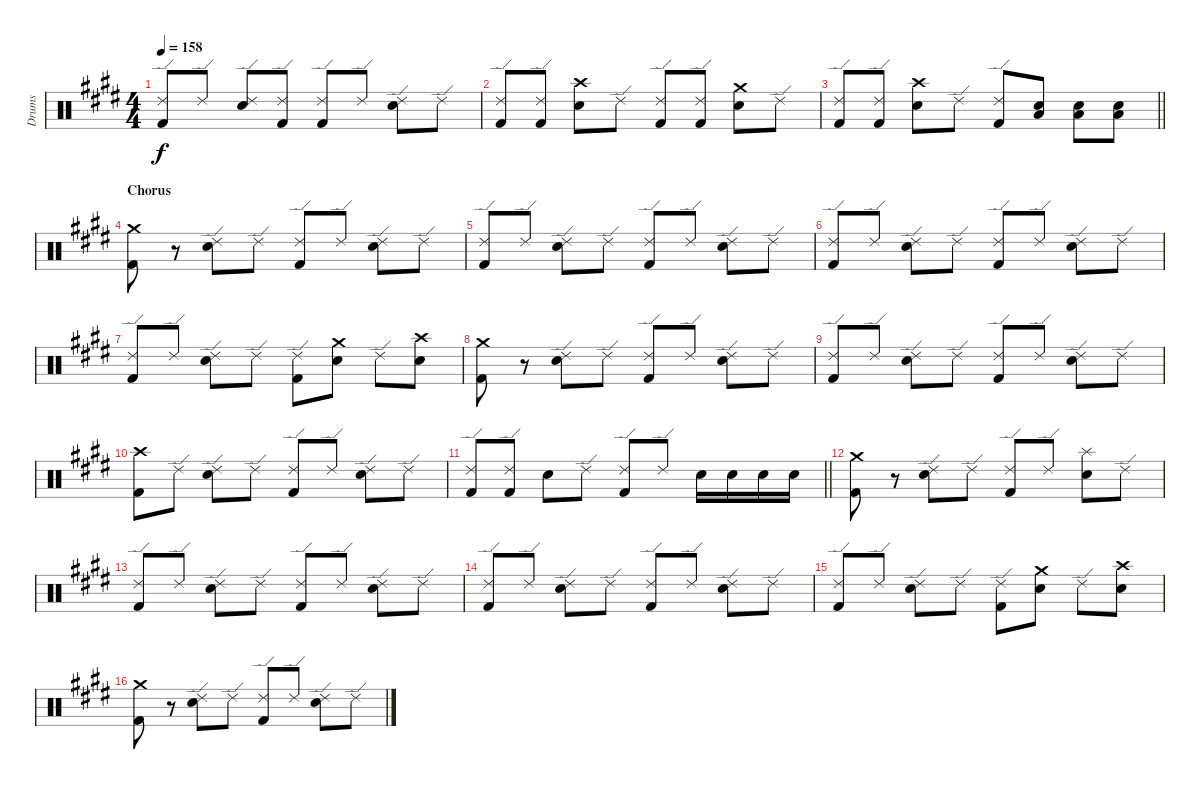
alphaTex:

\track ("Drums" "Drums") {instrument percussion}
\staff {score}
\articulation defaults
\ts (4 4)
\tempo 158
\clef neutral
\ks c#minor
("Ride (edge) 2" "Kick (hit) 2").8{dy f} "Ride (edge) 2".8 ("Ride (edge) 2" "Snare (hit) 2").8 ("Ride (edge) 2" "Kick (hit) 2").8 ("Ride (edge) 2" "Kick (hit) 2").8 "Ride (edge) 2".8 ("Ride (edge) 2" "Snare (hit) 2").8 "Ride (edge) 2".8 |
\ks e
("Ride (edge) 2" "Kick (hit) 2").8 ("Ride (edge) 2" "Kick (hit) 2").8 ("Crash high (hit)" "Snare (hit) 2").8 "Ride (edge) 2".8 ("Ride (edge) 2" "Kick (hit) 2").8 ("Ride (edge) 2" "Kick (hit) 2").8 ("Crash medium (hit)" "Snare (hit) 2").8 "Ride (edge) 2".8 |
\barLineRight lightlight
\ks c#minor
("Ride (edge) 2" "Kick (hit) 2").8 ("Ride (edge) 2" "Kick (hit) 2").8 ("Crash high (hit)" "Snare (hit) 2").8 "Ride (edge) 2".8 ("Ride (edge) 2" "Kick (hit) 2").8 ("Snare (hit) 2" "Low Floor Tom (hit)").8 ("Snare (hit) 2" "Low Floor Tom (hit)").8 ("Snare (hit) 2" "Low Floor Tom (hit)").8 |
\section ("" "Chorus")
\ks e
("Crash medium (hit)" "Kick (hit) 2").8 r.8 ("Ride (edge) 2" "Snare (hit) 2").8 "Ride (edge) 2".8 ("Ride (edge) 2" "Kick (hit) 2").8 "Ride (edge) 2".8 ("Ride (edge) 2" "Snare (hit) 2").8 "Ride (edge) 2".8 |
\ks c#minor
("Ride (edge) 2" "Kick (hit) 2").8 "Ride (edge) 2".8 ("Ride (edge) 2" "Snare (hit) 2").8 "Ride (edge) 2".8 ("Ride (edge) 2" "Kick (hit) 2").8 "Ride (edge) 2".8 ("Ride (edge) 2" "Snare (hit) 2").8 "Ride (edge) 2".8 |
("Ride (edge) 2" "Kick (hit) 2").8 "Ride (edge) 2".8 ("Ride (edge) 2" "Snare (hit) 2").8 "Ride (edge) 2".8 ("Ride (edge) 2" "Kick (hit) 2").8 "Ride (edge) 2".8 ("Ride (edge) 2" "Snare (hit) 2").8 "Ride (edge) 2".8 |
("Ride (edge) 2" "Kick (hit) 2").8 "Ride (edge) 2".8 ("Ride (edge) 2" "Snare (hit) 2").8 "Ride (edge) 2".8 ("Ride (edge) 2" "Kick (hit) 2").8 ("Crash medium (hit)" "Snare (hit) 2").8 "Ride (edge) 2".8 ("Crash high (hit)" "Snare (hit) 2").8 |
\ks e
("Crash medium (hit)" "Kick (hit) 2").8 r.8 ("Ride (edge) 2" "Snare (hit) 2").8 "Ride (edge) 2".8 ("Ride (edge) 2" "Kick (hit) 2").8 "Ride (edge) 2".8 ("Ride (edge) 2" "Snare (hit) 2").8 "Ride (edge) 2".8 |
\ks c#minor
("Ride (edge) 2" "Kick (hit) 2").8 "Ride (edge) 2".8 ("Ride (edge) 2" "Snare (hit) 2").8 "Ride (edge) 2".8 ("Ride (edge) 2" "Kick (hit) 2").8 "Ride (edge) 2".8 ("Ride (edge) 2" "Snare (hit) 2").8 "Ride (edge) 2".8 |
("Crash high (hit)" "Kick (hit) 2").8 "Ride (edge) 2".8 ("Ride (edge) 2" "Snare (hit) 2").8 "Ride (edge) 2".8 ("Ride (edge) 2" "Kick (hit) 2").8 "Ride (edge) 2".8 ("Ride (edge) 2" "Snare (hit) 2").8 "Ride (edge) 2".8 |
\barLineRight lightlight
("Ride (edge) 2" "Kick (hit) 2").8 ("Ride (edge) 2" "Kick (hit) 2").8 "Snare (hit) 2".8 "Ride (edge) 2".8 ("Ride (edge) 2" "Kick (hit) 2").8 "Ride (edge) 2".8 "Snare (hit) 2".16 "Snare (hit) 2".16 "Snare (hit) 2".16 "Snare (hit) 2".16 |
\ks e
("Crash medium (hit)" "Kick (hit) 2").8 r.8 ("Ride (edge) 2" "Snare (hit) 2").8 "Ride (edge) 2".8 ("Ride (edge) 2" "Kick (hit) 2").8 "Ride (edge) 2".8 ("Splash (hit)" "Snare (hit) 2").8 "Ride (edge) 2".8 |
\ks c#minor
("Ride (edge) 2" "Kick (hit) 2").8 "Ride (edge) 2".8 ("Ride (edge) 2" "Snare (hit) 2").8 "Ride (edge) 2".8 ("Ride (edge) 2" "Kick (hit) 2").8 "Ride (edge) 2".8 ("Ride (edge) 2" "Snare (hit) 2").8 "Ride (edge) 2".8 |
("Ride (edge) 2" "Kick (hit) 2").8 "Ride (edge) 2".8 ("Ride (edge) 2" "Snare (hit) 2").8 "Ride (edge) 2".8 ("Ride (edge) 2" "Kick (hit) 2").8 "Ride (edge) 2".8 ("Ride (edge) 2" "Snare (hit) 2").8 "Ride (edge) 2".8 |
("Ride (edge) 2" "Kick (hit) 2").8 "Ride (edge) 2".8 ("Ride (edge) 2" "Snare (hit) 2").8 "Ride (edge) 2".8 ("Ride (edge) 2" "Kick (hit) 2").8 ("Crash medium (hit)" "Snare (hit) 2").8 "Ride (edge) 2".8 ("Crash high (hit)" "Snare (hit) 2").8 |
\ks e
("Crash medium (hit)" "Kick (hit) 2").8 r.8 ("Ride (edge) 2" "Snare (hit) 2").8 "Ride (edge) 2".8 ("Ride (edge) 2" "Kick (hit) 2").8 "Ride (edge) 2".8 ("Ride (edge) 2" "Snare (hit) 2").8 "Ride (edge) 2".8
